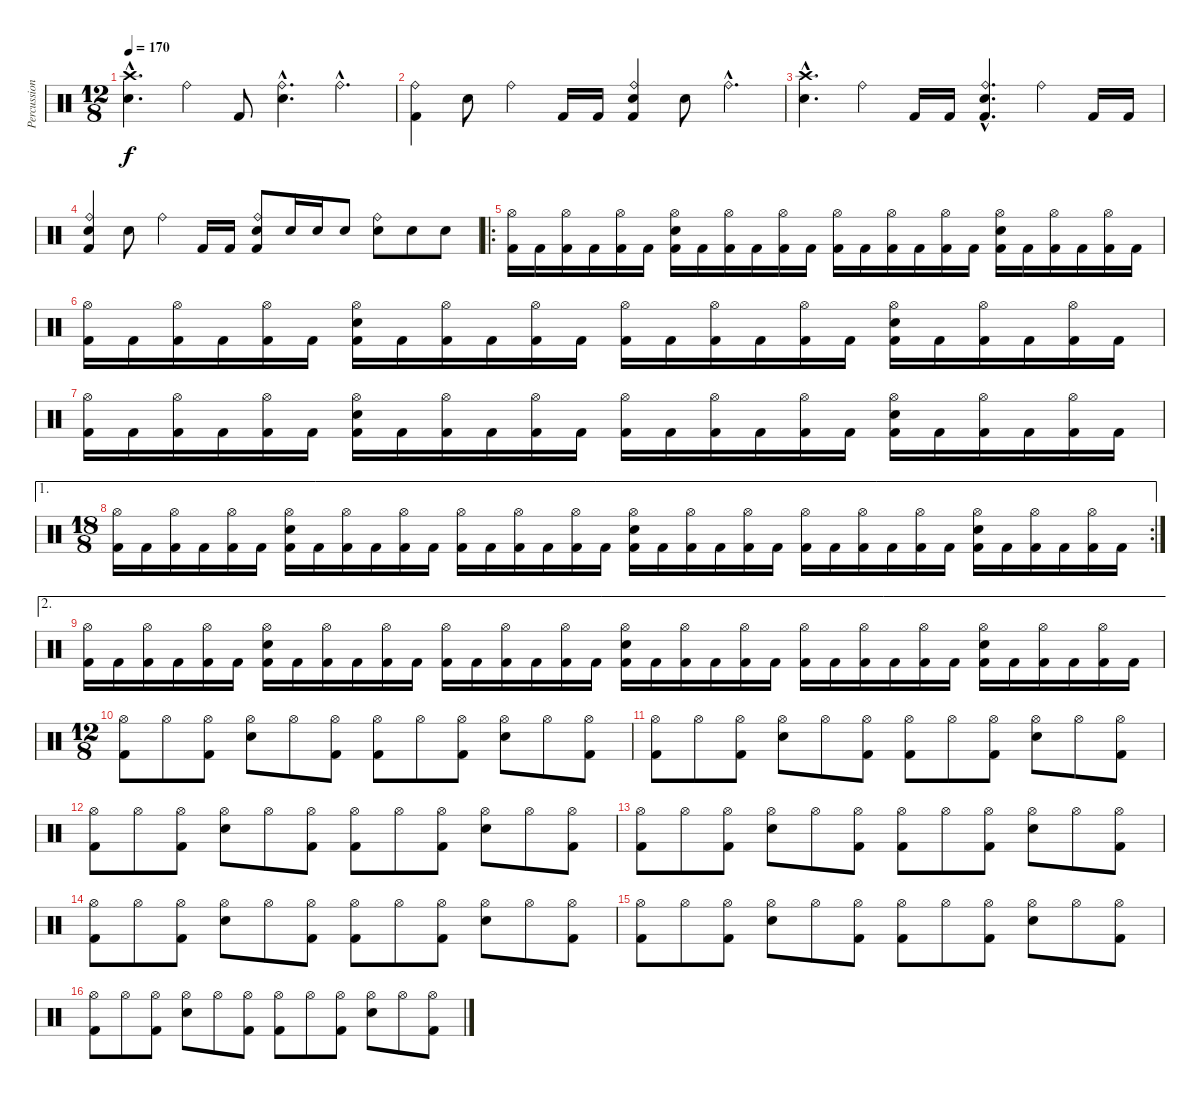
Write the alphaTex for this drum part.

\track ("Percussion" "Percussion") {instrument percussion}
\staff {score}
\articulation defaults
\ts (12 8)
\tempo 170
\clef neutral
\ks c
("Snare (hit) 2"{hac} "Crash high (hit)"{hac}).4{d dy f} "Ride (bell)".4 "Kick (hit) 2".8 ("Snare (hit) 2"{hac} "Ride (bell)"{hac}).4{d} "Ride (bell)"{hac}.4{d} |
("Kick (hit) 2" "Ride (bell)").4 "Snare (hit) 2".8 "Ride (bell)".4 "Kick (hit) 2".16 "Kick (hit) 2".16 ("Kick (hit) 2" "Snare (hit) 2" "Ride (bell)").4 "Snare (hit) 2".8 "Ride (bell)"{hac}.4{d} |
("Snare (hit) 2"{hac} "Crash high (hit)"{hac}).4{d} "Ride (bell)".4 "Kick (hit) 2".16 "Kick (hit) 2".16 ("Kick (hit) 2"{hac} "Snare (hit) 2"{hac} "Ride (bell)"{hac}).4{d} "Ride (bell)".4 "Kick (hit) 2".16 "Kick (hit) 2".16 |
("Kick (hit) 2" "Snare (hit) 2" "Ride (bell)").4 "Snare (hit) 2".8 "Ride (bell)".4 "Kick (hit) 2".16 "Kick (hit) 2".16 ("Kick (hit) 2" "Snare (hit) 2" "Ride (bell)").8 "Snare (hit) 2".16 "Snare (hit) 2".16 "Snare (hit) 2".8 ("Snare (hit) 2" "Ride (bell)").8 "Snare (hit) 2".8 "Snare (hit) 2".8 |
\ro
("Kick (hit) 2" "Hi-Hat (open)").16 "Kick (hit) 2".16 ("Kick (hit) 2" "Hi-Hat (open)").16 "Kick (hit) 2".16 ("Kick (hit) 2" "Hi-Hat (open)").16 "Kick (hit) 2".16 ("Kick (hit) 2" "Snare (hit) 2" "Hi-Hat (open)").16 "Kick (hit) 2".16 ("Kick (hit) 2" "Hi-Hat (open)").16 "Kick (hit) 2".16 ("Kick (hit) 2" "Hi-Hat (open)").16 "Kick (hit) 2".16 ("Kick (hit) 2" "Hi-Hat (open)").16 "Kick (hit) 2".16 ("Kick (hit) 2" "Hi-Hat (open)").16 "Kick (hit) 2".16 ("Kick (hit) 2" "Hi-Hat (open)").16 "Kick (hit) 2".16 ("Kick (hit) 2" "Snare (hit) 2" "Hi-Hat (open)").16 "Kick (hit) 2".16 ("Kick (hit) 2" "Hi-Hat (open)").16 "Kick (hit) 2".16 ("Kick (hit) 2" "Hi-Hat (open)").16 "Kick (hit) 2".16 |
("Kick (hit) 2" "Hi-Hat (open)").16 "Kick (hit) 2".16 ("Kick (hit) 2" "Hi-Hat (open)").16 "Kick (hit) 2".16 ("Kick (hit) 2" "Hi-Hat (open)").16 "Kick (hit) 2".16 ("Kick (hit) 2" "Snare (hit) 2" "Hi-Hat (open)").16 "Kick (hit) 2".16 ("Kick (hit) 2" "Hi-Hat (open)").16 "Kick (hit) 2".16 ("Kick (hit) 2" "Hi-Hat (open)").16 "Kick (hit) 2".16 ("Kick (hit) 2" "Hi-Hat (open)").16 "Kick (hit) 2".16 ("Kick (hit) 2" "Hi-Hat (open)").16 "Kick (hit) 2".16 ("Kick (hit) 2" "Hi-Hat (open)").16 "Kick (hit) 2".16 ("Kick (hit) 2" "Snare (hit) 2" "Hi-Hat (open)").16 "Kick (hit) 2".16 ("Kick (hit) 2" "Hi-Hat (open)").16 "Kick (hit) 2".16 ("Kick (hit) 2" "Hi-Hat (open)").16 "Kick (hit) 2".16 |
("Kick (hit) 2" "Hi-Hat (open)").16 "Kick (hit) 2".16 ("Kick (hit) 2" "Hi-Hat (open)").16 "Kick (hit) 2".16 ("Kick (hit) 2" "Hi-Hat (open)").16 "Kick (hit) 2".16 ("Kick (hit) 2" "Snare (hit) 2" "Hi-Hat (open)").16 "Kick (hit) 2".16 ("Kick (hit) 2" "Hi-Hat (open)").16 "Kick (hit) 2".16 ("Kick (hit) 2" "Hi-Hat (open)").16 "Kick (hit) 2".16 ("Kick (hit) 2" "Hi-Hat (open)").16 "Kick (hit) 2".16 ("Kick (hit) 2" "Hi-Hat (open)").16 "Kick (hit) 2".16 ("Kick (hit) 2" "Hi-Hat (open)").16 "Kick (hit) 2".16 ("Kick (hit) 2" "Snare (hit) 2" "Hi-Hat (open)").16 "Kick (hit) 2".16 ("Kick (hit) 2" "Hi-Hat (open)").16 "Kick (hit) 2".16 ("Kick (hit) 2" "Hi-Hat (open)").16 "Kick (hit) 2".16 |
\ae 1
\rc 2
\ts (18 8)
("Kick (hit) 2" "Hi-Hat (open)").16 "Kick (hit) 2".16 ("Kick (hit) 2" "Hi-Hat (open)").16 "Kick (hit) 2".16 ("Kick (hit) 2" "Hi-Hat (open)").16 "Kick (hit) 2".16 ("Kick (hit) 2" "Snare (hit) 2" "Hi-Hat (open)").16 "Kick (hit) 2".16 ("Kick (hit) 2" "Hi-Hat (open)").16 "Kick (hit) 2".16 ("Kick (hit) 2" "Hi-Hat (open)").16 "Kick (hit) 2".16 ("Kick (hit) 2" "Hi-Hat (open)").16 "Kick (hit) 2".16 ("Kick (hit) 2" "Hi-Hat (open)").16 "Kick (hit) 2".16 ("Kick (hit) 2" "Hi-Hat (open)").16 "Kick (hit) 2".16 ("Kick (hit) 2" "Snare (hit) 2" "Hi-Hat (open)").16 "Kick (hit) 2".16 ("Kick (hit) 2" "Hi-Hat (open)").16 "Kick (hit) 2".16 ("Kick (hit) 2" "Hi-Hat (open)").16 "Kick (hit) 2".16 ("Kick (hit) 2" "Hi-Hat (open)").16 "Kick (hit) 2".16 ("Kick (hit) 2" "Hi-Hat (open)").16 "Kick (hit) 2".16 ("Kick (hit) 2" "Hi-Hat (open)").16 "Kick (hit) 2".16 ("Kick (hit) 2" "Snare (hit) 2" "Hi-Hat (open)").16 "Kick (hit) 2".16 ("Kick (hit) 2" "Hi-Hat (open)").16 "Kick (hit) 2".16 ("Kick (hit) 2" "Hi-Hat (open)").16 "Kick (hit) 2".16 |
\ae 2
("Kick (hit) 2" "Hi-Hat (open)").16 "Kick (hit) 2".16 ("Kick (hit) 2" "Hi-Hat (open)").16 "Kick (hit) 2".16 ("Kick (hit) 2" "Hi-Hat (open)").16 "Kick (hit) 2".16 ("Kick (hit) 2" "Snare (hit) 2" "Hi-Hat (open)").16 "Kick (hit) 2".16 ("Kick (hit) 2" "Hi-Hat (open)").16 "Kick (hit) 2".16 ("Kick (hit) 2" "Hi-Hat (open)").16 "Kick (hit) 2".16 ("Kick (hit) 2" "Hi-Hat (open)").16 "Kick (hit) 2".16 ("Kick (hit) 2" "Hi-Hat (open)").16 "Kick (hit) 2".16 ("Kick (hit) 2" "Hi-Hat (open)").16 "Kick (hit) 2".16 ("Kick (hit) 2" "Snare (hit) 2" "Hi-Hat (open)").16 "Kick (hit) 2".16 ("Kick (hit) 2" "Hi-Hat (open)").16 "Kick (hit) 2".16 ("Kick (hit) 2" "Hi-Hat (open)").16 "Kick (hit) 2".16 ("Kick (hit) 2" "Hi-Hat (open)").16 "Kick (hit) 2".16 ("Kick (hit) 2" "Hi-Hat (open)").16 "Kick (hit) 2".16 ("Kick (hit) 2" "Hi-Hat (open)").16 "Kick (hit) 2".16 ("Kick (hit) 2" "Snare (hit) 2" "Hi-Hat (open)").16 "Kick (hit) 2".16 ("Kick (hit) 2" "Hi-Hat (open)").16 "Kick (hit) 2".16 ("Kick (hit) 2" "Hi-Hat (open)").16 "Kick (hit) 2".16 |
\ts (12 8)
("Kick (hit) 2" "Hi-Hat (open)").8 "Hi-Hat (open)".8 ("Kick (hit) 2" "Hi-Hat (open)").8 ("Snare (hit) 2" "Hi-Hat (open)").8 "Hi-Hat (open)".8 ("Kick (hit) 2" "Hi-Hat (open)").8 ("Kick (hit) 2" "Hi-Hat (open)").8 "Hi-Hat (open)".8 ("Kick (hit) 2" "Hi-Hat (open)").8 ("Snare (hit) 2" "Hi-Hat (open)").8 "Hi-Hat (open)".8 ("Kick (hit) 2" "Hi-Hat (open)").8 |
("Kick (hit) 2" "Hi-Hat (open)").8 "Hi-Hat (open)".8 ("Kick (hit) 2" "Hi-Hat (open)").8 ("Snare (hit) 2" "Hi-Hat (open)").8 "Hi-Hat (open)".8 ("Kick (hit) 2" "Hi-Hat (open)").8 ("Kick (hit) 2" "Hi-Hat (open)").8 "Hi-Hat (open)".8 ("Kick (hit) 2" "Hi-Hat (open)").8 ("Snare (hit) 2" "Hi-Hat (open)").8 "Hi-Hat (open)".8 ("Kick (hit) 2" "Hi-Hat (open)").8 |
("Kick (hit) 2" "Hi-Hat (open)").8 "Hi-Hat (open)".8 ("Kick (hit) 2" "Hi-Hat (open)").8 ("Snare (hit) 2" "Hi-Hat (open)").8 "Hi-Hat (open)".8 ("Kick (hit) 2" "Hi-Hat (open)").8 ("Kick (hit) 2" "Hi-Hat (open)").8 "Hi-Hat (open)".8 ("Kick (hit) 2" "Hi-Hat (open)").8 ("Snare (hit) 2" "Hi-Hat (open)").8 "Hi-Hat (open)".8 ("Kick (hit) 2" "Hi-Hat (open)").8 |
("Kick (hit) 2" "Hi-Hat (open)").8 "Hi-Hat (open)".8 ("Kick (hit) 2" "Hi-Hat (open)").8 ("Snare (hit) 2" "Hi-Hat (open)").8 "Hi-Hat (open)".8 ("Kick (hit) 2" "Hi-Hat (open)").8 ("Kick (hit) 2" "Hi-Hat (open)").8 "Hi-Hat (open)".8 ("Kick (hit) 2" "Hi-Hat (open)").8 ("Snare (hit) 2" "Hi-Hat (open)").8 "Hi-Hat (open)".8 ("Kick (hit) 2" "Hi-Hat (open)").8 |
("Kick (hit) 2" "Hi-Hat (open)").8 "Hi-Hat (open)".8 ("Kick (hit) 2" "Hi-Hat (open)").8 ("Snare (hit) 2" "Hi-Hat (open)").8 "Hi-Hat (open)".8 ("Kick (hit) 2" "Hi-Hat (open)").8 ("Kick (hit) 2" "Hi-Hat (open)").8 "Hi-Hat (open)".8 ("Kick (hit) 2" "Hi-Hat (open)").8 ("Snare (hit) 2" "Hi-Hat (open)").8 "Hi-Hat (open)".8 ("Kick (hit) 2" "Hi-Hat (open)").8 |
("Kick (hit) 2" "Hi-Hat (open)").8 "Hi-Hat (open)".8 ("Kick (hit) 2" "Hi-Hat (open)").8 ("Snare (hit) 2" "Hi-Hat (open)").8 "Hi-Hat (open)".8 ("Kick (hit) 2" "Hi-Hat (open)").8 ("Kick (hit) 2" "Hi-Hat (open)").8 "Hi-Hat (open)".8 ("Kick (hit) 2" "Hi-Hat (open)").8 ("Snare (hit) 2" "Hi-Hat (open)").8 "Hi-Hat (open)".8 ("Kick (hit) 2" "Hi-Hat (open)").8 |
("Kick (hit) 2" "Hi-Hat (open)").8 "Hi-Hat (open)".8 ("Kick (hit) 2" "Hi-Hat (open)").8 ("Snare (hit) 2" "Hi-Hat (open)").8 "Hi-Hat (open)".8 ("Kick (hit) 2" "Hi-Hat (open)").8 ("Kick (hit) 2" "Hi-Hat (open)").8 "Hi-Hat (open)".8 ("Kick (hit) 2" "Hi-Hat (open)").8 ("Snare (hit) 2" "Hi-Hat (open)").8 "Hi-Hat (open)".8 ("Kick (hit) 2" "Hi-Hat (open)").8
